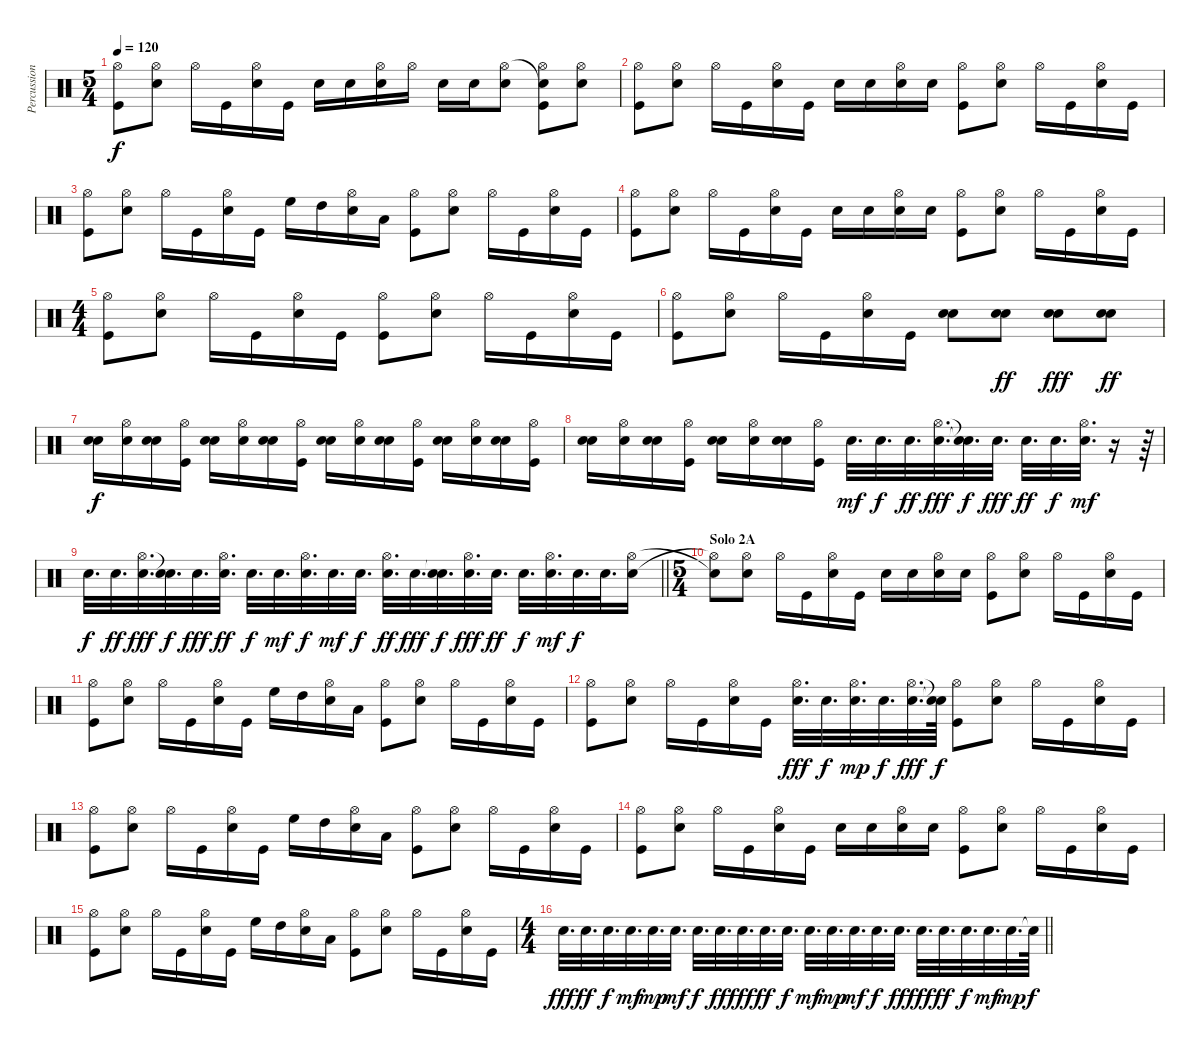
\track ("Percussion" "Percussion") {instrument percussion}
\staff {score}
\articulation defaults
\ts (5 4)
\tempo 120
\clef neutral
\ks c
("Hi-Hat (open)" "Kick (hit)").8{dy f} ("Hi-Hat (open)" "Electric Snare (hit)").8 "Hi-Hat (open)".16 "Kick (hit)".16 ("Hi-Hat (open)" "Electric Snare (hit)").16 "Kick (hit)".16 "Electric Snare (hit)".16 "Electric Snare (hit)".16 ("Electric Snare (hit)" "Hi-Hat (open)").16 "Hi-Hat (open)".16 "Electric Snare (hit)".16 "Electric Snare (hit)".16 ("Electric Snare (hit)" "Hi-Hat (open)").8 ("Hi-Hat (open)" "Snare (hit)"{t} "Kick (hit)").8 ("Hi-Hat (open)" "Electric Snare (hit)").8 |
("Hi-Hat (open)" "Kick (hit)").8 ("Hi-Hat (open)" "Electric Snare (hit)").8 "Hi-Hat (open)".16 "Kick (hit)".16 ("Hi-Hat (open)" "Electric Snare (hit)").16 "Kick (hit)".16 "Electric Snare (hit)".16 "Electric Snare (hit)".16 ("Electric Snare (hit)" "Hi-Hat (open)").16 "Electric Snare (hit)".16 ("Hi-Hat (open)" "Kick (hit)").8 ("Hi-Hat (open)" "Electric Snare (hit)").8 "Hi-Hat (open)".16 "Kick (hit)".16 ("Hi-Hat (open)" "Electric Snare (hit)").16 "Kick (hit)".16 |
("Hi-Hat (open)" "Kick (hit)").8 ("Hi-Hat (open)" "Electric Snare (hit)").8 "Hi-Hat (open)".16 "Kick (hit)".16 ("Hi-Hat (open)" "Electric Snare (hit)").16 "Kick (hit)".16 "High Floor Tom (hit)".16 "High Tom (hit)".16 ("Electric Snare (hit)" "Hi-Hat (open)").16 "Low Tom (hit)".16 ("Hi-Hat (open)" "Kick (hit)").8 ("Hi-Hat (open)" "Electric Snare (hit)").8 "Hi-Hat (open)".16 "Kick (hit)".16 ("Hi-Hat (open)" "Electric Snare (hit)").16 "Kick (hit)".16 |
("Hi-Hat (open)" "Kick (hit)").8 ("Hi-Hat (open)" "Electric Snare (hit)").8 "Hi-Hat (open)".16 "Kick (hit)".16 ("Hi-Hat (open)" "Electric Snare (hit)").16 "Kick (hit)".16 "Electric Snare (hit)".16 "Electric Snare (hit)".16 ("Electric Snare (hit)" "Hi-Hat (open)").16 "Electric Snare (hit)".16 ("Hi-Hat (open)" "Kick (hit)").8 ("Hi-Hat (open)" "Electric Snare (hit)").8 "Hi-Hat (open)".16 "Kick (hit)".16 ("Hi-Hat (open)" "Electric Snare (hit)").16 "Kick (hit)".16 |
\ts (4 4)
("Hi-Hat (open)" "Kick (hit)").8 ("Hi-Hat (open)" "Electric Snare (hit)").8 "Hi-Hat (open)".16 "Kick (hit)".16 ("Hi-Hat (open)" "Electric Snare (hit)").16 "Kick (hit)".16 ("Hi-Hat (open)" "Kick (hit)").8 ("Hi-Hat (open)" "Electric Snare (hit)").8 "Hi-Hat (open)".16 "Kick (hit)".16 ("Hi-Hat (open)" "Electric Snare (hit)").16 "Kick (hit)".16 |
("Hi-Hat (open)" "Kick (hit)").8 ("Hi-Hat (open)" "Electric Snare (hit)").8 "Hi-Hat (open)".16 "Kick (hit)".16 ("Hi-Hat (open)" "Electric Snare (hit)").16 "Kick (hit)".16 ("Electric Snare (hit)" "Electric Snare (hit)").8 ("Electric Snare (hit)" "Electric Snare (hit)").8{dy ff} ("Electric Snare (hit)" "Electric Snare (hit)").8{dy fff} ("Electric Snare (hit)" "Electric Snare (hit)").8{dy ff} |
("Electric Snare (hit)" "Electric Snare (hit)").16{dy f} ("Hi-Hat (open)" "Electric Snare (hit)").16 ("Electric Snare (hit)" "Electric Snare (hit)").16 ("Hi-Hat (open)" "Kick (hit)").16 ("Electric Snare (hit)" "Electric Snare (hit)").16 ("Hi-Hat (open)" "Electric Snare (hit)").16 ("Electric Snare (hit)" "Electric Snare (hit)").16 ("Hi-Hat (open)" "Kick (hit)").16 ("Electric Snare (hit)" "Electric Snare (hit)").16 ("Hi-Hat (open)" "Electric Snare (hit)").16 ("Electric Snare (hit)" "Electric Snare (hit)").16 ("Hi-Hat (open)" "Kick (hit)").16 ("Electric Snare (hit)" "Electric Snare (hit)").16 ("Hi-Hat (open)" "Electric Snare (hit)").16 ("Electric Snare (hit)" "Electric Snare (hit)").16 ("Hi-Hat (open)" "Kick (hit)").16 |
("Electric Snare (hit)" "Electric Snare (hit)").16 ("Hi-Hat (open)" "Electric Snare (hit)").16 ("Electric Snare (hit)" "Electric Snare (hit)").16 ("Hi-Hat (open)" "Kick (hit)").16 ("Electric Snare (hit)" "Electric Snare (hit)").16 ("Hi-Hat (open)" "Electric Snare (hit)").16 ("Electric Snare (hit)" "Electric Snare (hit)").16 ("Hi-Hat (open)" "Kick (hit)").16 "Electric Snare (hit)".32{d dy mf} "Electric Snare (hit)".32{d dy f} "Electric Snare (hit)".32{d dy ff} ("Hi-Hat (open)" "Electric Snare (hit)").32{d dy fff} ("Snare (hit)"{t} "Snare (hit)"{t}).32{d dy f} "Electric Snare (hit)".32{d dy fff} "Electric Snare (hit)".32{d dy ff} "Electric Snare (hit)".32{d dy f} ("Hi-Hat (open)" "Electric Snare (hit)").32{d dy mf} r.16 r.64 |
\barLineRight lightlight "Electric Snare (hit)".32{d dy f} "Electric Snare (hit)".32{d dy ff}
("Hi-Hat (open)" "Electric Snare (hit)").32{d dy fff} ("Snare (hit)"{t} "Electric Snare (hit)").32{d dy f} "Electric Snare (hit)".32{d dy fff} ("Hi-Hat (open)" "Electric Snare (hit)").32{d dy ff} "Electric Snare (hit)".32{d dy f} "Electric Snare (hit)".32{d dy mf} ("Hi-Hat (open)" "Electric Snare (hit)").32{d dy f} "Electric Snare (hit)".32{d dy mf} "Electric Snare (hit)".32{d dy f} ("Hi-Hat (open)" "Electric Snare (hit)").32{d dy ff} "Electric Snare (hit)".32{d dy fff} ("Snare (hit)"{t} "Electric Snare (hit)").32{d dy f} ("Hi-Hat (open)" "Electric Snare (hit)").32{d dy fff} "Electric Snare (hit)".32{d dy ff} "Electric Snare (hit)".32{d dy f} ("Hi-Hat (open)" "Electric Snare (hit)").32{d dy mf} "Electric Snare (hit)".32{d dy f} "Electric Snare (hit)".32{d} ("Hi-Hat (open)" "Electric Snare (hit)").16 |
\ts (5 4)
\section ("" "Solo 2A")
("Snare (hit)"{t} "Hi-Hat (open)"{t}).8 ("Hi-Hat (open)" "Electric Snare (hit)").8 "Hi-Hat (open)".16 "Kick (hit)".16 ("Hi-Hat (open)" "Electric Snare (hit)").16 "Kick (hit)".16 "Electric Snare (hit)".16 "Electric Snare (hit)".16 ("Electric Snare (hit)" "Hi-Hat (open)").16 "Electric Snare (hit)".16 ("Hi-Hat (open)" "Kick (hit)").8 ("Hi-Hat (open)" "Electric Snare (hit)").8 "Hi-Hat (open)".16 "Kick (hit)".16 ("Hi-Hat (open)" "Electric Snare (hit)").16 "Kick (hit)".16 |
("Hi-Hat (open)" "Kick (hit)").8 ("Hi-Hat (open)" "Electric Snare (hit)").8 "Hi-Hat (open)".16 "Kick (hit)".16 ("Hi-Hat (open)" "Electric Snare (hit)").16 "Kick (hit)".16 "High Floor Tom (hit)".16 "High Tom (hit)".16 ("Electric Snare (hit)" "Hi-Hat (open)").16 "Low Tom (hit)".16 ("Hi-Hat (open)" "Kick (hit)").8 ("Hi-Hat (open)" "Electric Snare (hit)").8 "Hi-Hat (open)".16 "Kick (hit)".16 ("Hi-Hat (open)" "Electric Snare (hit)").16 "Kick (hit)".16 |
("Hi-Hat (open)" "Kick (hit)").8 ("Hi-Hat (open)" "Electric Snare (hit)").8 "Hi-Hat (open)".16 "Kick (hit)".16 ("Hi-Hat (open)" "Electric Snare (hit)").16 "Kick (hit)".16 ("Electric Snare (hit)" "Hi-Hat (open)").32{d dy fff} "Electric Snare (hit)".32{d dy f} ("Electric Snare (hit)" "Hi-Hat (open)").32{d dy mp} "Electric Snare (hit)".32{d dy f} ("Electric Snare (hit)" "Hi-Hat (open)").32{d dy fff} ("Electric Snare (hit)"{t} "Snare (hit)"{t}).64{dy f} ("Hi-Hat (open)" "Kick (hit)").8 ("Hi-Hat (open)" "Electric Snare (hit)").8 "Hi-Hat (open)".16 "Kick (hit)".16 ("Hi-Hat (open)" "Electric Snare (hit)").16 "Kick (hit)".16 |
("Hi-Hat (open)" "Kick (hit)").8 ("Hi-Hat (open)" "Electric Snare (hit)").8 "Hi-Hat (open)".16 "Kick (hit)".16 ("Hi-Hat (open)" "Electric Snare (hit)").16 "Kick (hit)".16 "High Floor Tom (hit)".16 "High Tom (hit)".16 ("Electric Snare (hit)" "Hi-Hat (open)").16 "Low Tom (hit)".16 ("Hi-Hat (open)" "Kick (hit)").8 ("Hi-Hat (open)" "Electric Snare (hit)").8 "Hi-Hat (open)".16 "Kick (hit)".16 ("Hi-Hat (open)" "Electric Snare (hit)").16 "Kick (hit)".16 |
("Hi-Hat (open)" "Kick (hit)").8 ("Hi-Hat (open)" "Electric Snare (hit)").8 "Hi-Hat (open)".16 "Kick (hit)".16 ("Hi-Hat (open)" "Electric Snare (hit)").16 "Kick (hit)".16 "Electric Snare (hit)".16 "Electric Snare (hit)".16 ("Electric Snare (hit)" "Hi-Hat (open)").16 "Electric Snare (hit)".16 ("Hi-Hat (open)" "Kick (hit)").8 ("Hi-Hat (open)" "Electric Snare (hit)").8 "Hi-Hat (open)".16 "Kick (hit)".16 ("Hi-Hat (open)" "Electric Snare (hit)").16 "Kick (hit)".16 |
("Hi-Hat (open)" "Kick (hit)").8 ("Hi-Hat (open)" "Electric Snare (hit)").8 "Hi-Hat (open)".16 "Kick (hit)".16 ("Hi-Hat (open)" "Electric Snare (hit)").16 "Kick (hit)".16 "High Floor Tom (hit)".16 "High Tom (hit)".16 ("Electric Snare (hit)" "Hi-Hat (open)").16 "Low Tom (hit)".16 ("Hi-Hat (open)" "Kick (hit)").8 ("Hi-Hat (open)" "Electric Snare (hit)").8 "Hi-Hat (open)".16 "Kick (hit)".16 ("Hi-Hat (open)" "Electric Snare (hit)").16 "Kick (hit)".16 |
\ts (4 4)
\barLineRight lightlight "Electric Snare (hit)".32{d dy fff} "Electric Snare (hit)".32{d dy ff} "Electric Snare (hit)".32{d dy f} "Electric Snare (hit)".32{d dy mf} "Electric Snare (hit)".32{d dy mp} "Electric Snare (hit)".32{d dy mf} "Electric Snare (hit)".32{d dy f} "Electric Snare (hit)".32{d dy ff} "Electric Snare (hit)".32{d dy fff} "Electric Snare (hit)".32{d dy ff} "Electric Snare (hit)".32{d dy f} "Electric Snare (hit)".32{d dy mf} "Electric Snare (hit)".32{d dy mp} "Electric Snare (hit)".32{d dy mf} "Electric Snare (hit)".32{d dy f} "Electric Snare (hit)".32{d dy ff} "Electric Snare (hit)".32{d dy fff} "Electric Snare (hit)".32{d dy ff} "Electric Snare (hit)".32{d dy f} "Electric Snare (hit)".32{d dy mf} "Electric Snare (hit)".32{d dy mp} "Snare (hit)"{t}.64{dy f}
